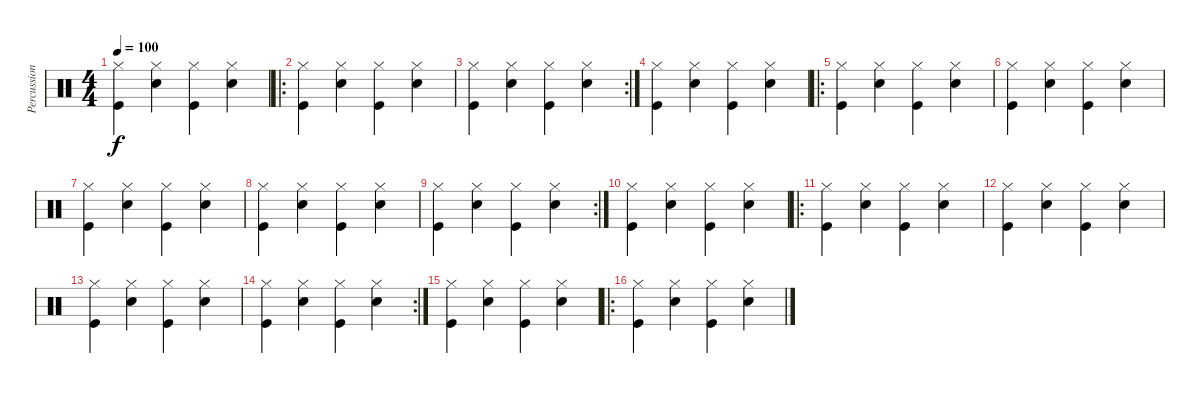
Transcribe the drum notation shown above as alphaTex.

\track ("Percussion" "Percussion") {instrument percussion}
\staff {score}
\articulation defaults
\ts (4 4)
\tempo 100
\clef neutral
\ks c
("Hi-Hat (closed)" "Kick (hit)").4{dy f} ("Hi-Hat (closed)" "Electric Snare (hit)").4 ("Hi-Hat (closed)" "Kick (hit)").4 ("Hi-Hat (closed)" "Electric Snare (hit)").4 |
\ro
("Hi-Hat (closed)" "Kick (hit)").4 ("Hi-Hat (closed)" "Electric Snare (hit)").4 ("Hi-Hat (closed)" "Kick (hit)").4 ("Hi-Hat (closed)" "Electric Snare (hit)").4 |
\rc 2
("Hi-Hat (closed)" "Kick (hit)").4 ("Hi-Hat (closed)" "Electric Snare (hit)").4 ("Hi-Hat (closed)" "Kick (hit)").4 ("Hi-Hat (closed)" "Electric Snare (hit)").4 |
("Hi-Hat (closed)" "Kick (hit)").4 ("Hi-Hat (closed)" "Electric Snare (hit)").4 ("Hi-Hat (closed)" "Kick (hit)").4 ("Hi-Hat (closed)" "Electric Snare (hit)").4 |
\ro
("Hi-Hat (closed)" "Kick (hit)").4 ("Hi-Hat (closed)" "Electric Snare (hit)").4 ("Hi-Hat (closed)" "Kick (hit)").4 ("Hi-Hat (closed)" "Electric Snare (hit)").4 |
("Hi-Hat (closed)" "Kick (hit)").4 ("Hi-Hat (closed)" "Electric Snare (hit)").4 ("Hi-Hat (closed)" "Kick (hit)").4 ("Hi-Hat (closed)" "Electric Snare (hit)").4 |
("Hi-Hat (closed)" "Kick (hit)").4 ("Hi-Hat (closed)" "Electric Snare (hit)").4 ("Hi-Hat (closed)" "Kick (hit)").4 ("Hi-Hat (closed)" "Electric Snare (hit)").4 |
("Hi-Hat (closed)" "Kick (hit)").4 ("Hi-Hat (closed)" "Electric Snare (hit)").4 ("Hi-Hat (closed)" "Kick (hit)").4 ("Hi-Hat (closed)" "Electric Snare (hit)").4 |
\rc 2
("Hi-Hat (closed)" "Kick (hit)").4 ("Hi-Hat (closed)" "Electric Snare (hit)").4 ("Hi-Hat (closed)" "Kick (hit)").4 ("Hi-Hat (closed)" "Electric Snare (hit)").4 |
("Hi-Hat (closed)" "Kick (hit)").4 ("Hi-Hat (closed)" "Electric Snare (hit)").4 ("Hi-Hat (closed)" "Kick (hit)").4 ("Hi-Hat (closed)" "Electric Snare (hit)").4 |
\ro
("Hi-Hat (closed)" "Kick (hit)").4 ("Hi-Hat (closed)" "Electric Snare (hit)").4 ("Hi-Hat (closed)" "Kick (hit)").4 ("Hi-Hat (closed)" "Electric Snare (hit)").4 |
("Hi-Hat (closed)" "Kick (hit)").4 ("Hi-Hat (closed)" "Electric Snare (hit)").4 ("Hi-Hat (closed)" "Kick (hit)").4 ("Hi-Hat (closed)" "Electric Snare (hit)").4 |
("Hi-Hat (closed)" "Kick (hit)").4 ("Hi-Hat (closed)" "Electric Snare (hit)").4 ("Hi-Hat (closed)" "Kick (hit)").4 ("Hi-Hat (closed)" "Electric Snare (hit)").4 |
\rc 2
("Hi-Hat (closed)" "Kick (hit)").4 ("Hi-Hat (closed)" "Electric Snare (hit)").4 ("Hi-Hat (closed)" "Kick (hit)").4 ("Hi-Hat (closed)" "Electric Snare (hit)").4 |
("Hi-Hat (closed)" "Kick (hit)").4 ("Hi-Hat (closed)" "Electric Snare (hit)").4 ("Hi-Hat (closed)" "Kick (hit)").4 ("Hi-Hat (closed)" "Electric Snare (hit)").4 |
\ro
("Hi-Hat (closed)" "Kick (hit)").4 ("Hi-Hat (closed)" "Electric Snare (hit)").4 ("Hi-Hat (closed)" "Kick (hit)").4 ("Hi-Hat (closed)" "Electric Snare (hit)").4
